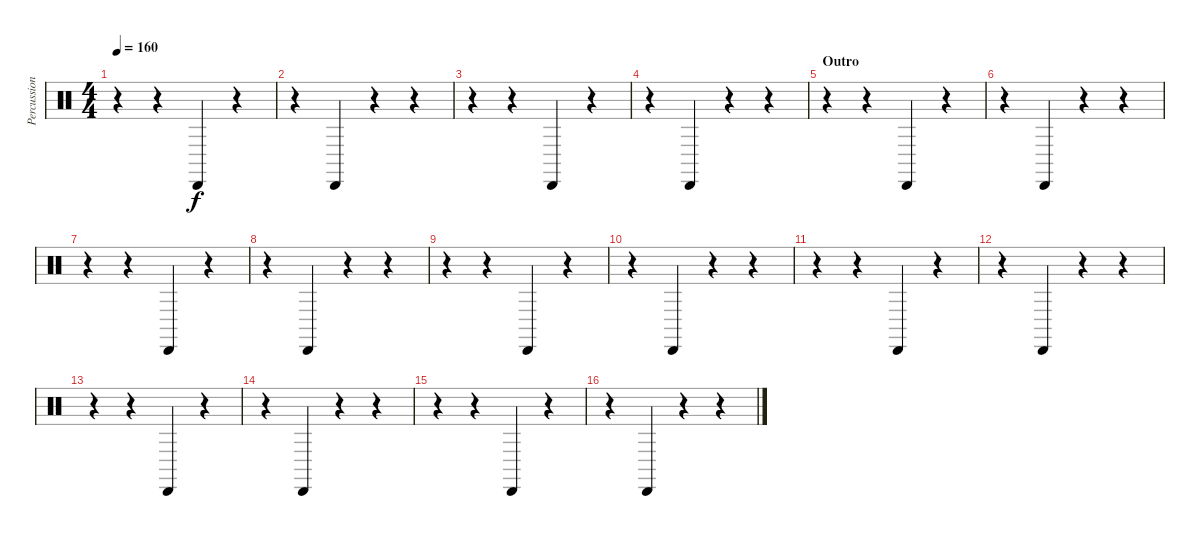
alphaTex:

\track ("Percussion" "Percussion") {instrument percussion}
\staff {score}
\articulation defaults
\ts (4 4)
\tempo 160
\clef neutral
\ks c
r.4{dy f} r.4 "Cabasa (hit)".4 r.4 |
r.4 "Cabasa (hit)".4 r.4 r.4 |
r.4 r.4 "Cabasa (hit)".4 r.4 |
r.4 "Cabasa (hit)".4 r.4 r.4 |
\section ("" "Outro")
r.4 r.4 "Cabasa (hit)".4 r.4 |
r.4 "Cabasa (hit)".4 r.4 r.4 |
r.4 r.4 "Cabasa (hit)".4 r.4 |
r.4 "Cabasa (hit)".4 r.4 r.4 |
r.4 r.4 "Cabasa (hit)".4 r.4 |
r.4 "Cabasa (hit)".4 r.4 r.4 |
r.4 r.4 "Cabasa (hit)".4 r.4 |
r.4 "Cabasa (hit)".4 r.4 r.4 |
r.4 r.4 "Cabasa (hit)".4 r.4 |
r.4 "Cabasa (hit)".4 r.4 r.4 |
r.4 r.4 "Cabasa (hit)".4 r.4 |
r.4 "Cabasa (hit)".4 r.4 r.4
